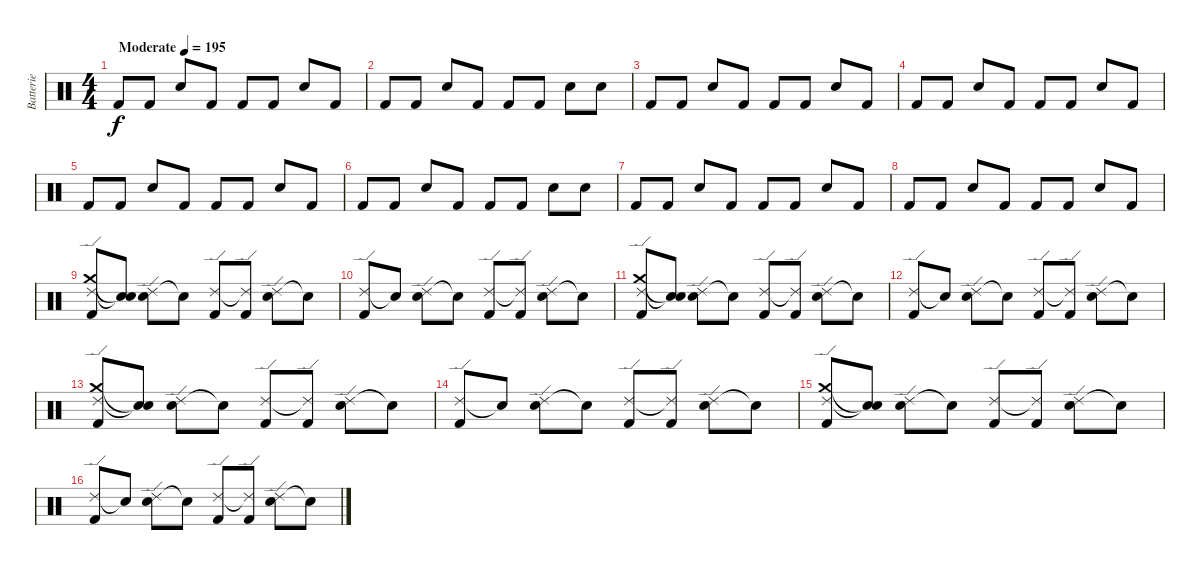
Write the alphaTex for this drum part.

\track ("Batterie" "Batterie") {instrument percussion}
\staff {score}
\articulation defaults
\ts (4 4)
\tempo (195 "Moderate")
\clef neutral
\ks c "Kick (hit) 2".8{dy f} "Kick (hit) 2".8 "Electric Snare (hit)".8 "Kick (hit) 2".8 "Kick (hit) 2".8 "Kick (hit) 2".8 "Electric Snare (hit)".8 "Kick (hit) 2".8
|
"Kick (hit) 2".8 "Kick (hit) 2".8 "Electric Snare (hit)".8 "Kick (hit) 2".8 "Kick (hit) 2".8 "Kick (hit) 2".8 "Electric Snare (hit)".8 "Electric Snare (hit)".8 |
"Kick (hit) 2".8 "Kick (hit) 2".8 "Electric Snare (hit)".8 "Kick (hit) 2".8 "Kick (hit) 2".8 "Kick (hit) 2".8 "Electric Snare (hit)".8 "Kick (hit) 2".8 |
"Kick (hit) 2".8 "Kick (hit) 2".8 "Electric Snare (hit)".8 "Kick (hit) 2".8 "Kick (hit) 2".8 "Kick (hit) 2".8 "Electric Snare (hit)".8 "Kick (hit) 2".8 |
"Kick (hit) 2".8 "Kick (hit) 2".8 "Electric Snare (hit)".8 "Kick (hit) 2".8 "Kick (hit) 2".8 "Kick (hit) 2".8 "Electric Snare (hit)".8 "Kick (hit) 2".8 |
"Kick (hit) 2".8 "Kick (hit) 2".8 "Electric Snare (hit)".8 "Kick (hit) 2".8 "Kick (hit) 2".8 "Kick (hit) 2".8 "Electric Snare (hit)".8 "Electric Snare (hit)".8 |
"Kick (hit) 2".8 "Kick (hit) 2".8 "Electric Snare (hit)".8 "Kick (hit) 2".8 "Kick (hit) 2".8 "Kick (hit) 2".8 "Electric Snare (hit)".8 "Kick (hit) 2".8 |
"Kick (hit) 2".8 "Kick (hit) 2".8 "Electric Snare (hit)".8 "Kick (hit) 2".8 "Kick (hit) 2".8 "Kick (hit) 2".8 "Electric Snare (hit)".8 "Kick (hit) 2".8 |
("Crash medium (hit)" "Ride (edge) 2" "Kick (hit) 2").8 ("Snare (hit)"{t} "Snare (hit)"{t}).8 ("Ride (edge) 2" "Electric Snare (hit)").8 "Snare (hit)"{t}.8 ("Ride (edge) 2" "Kick (hit) 2").8 ("Ride (edge) 2"{t} "Kick (hit) 2").8 ("Ride (edge) 2" "Electric Snare (hit)").8 "Snare (hit)"{t}.8 |
("Ride (edge) 2" "Kick (hit) 2").8 "Snare (hit)"{t}.8 ("Ride (edge) 2" "Electric Snare (hit)").8 "Snare (hit)"{t}.8 ("Ride (edge) 2" "Kick (hit) 2").8 ("Ride (edge) 2"{t} "Kick (hit) 2").8 ("Ride (edge) 2" "Electric Snare (hit)").8 "Snare (hit)"{t}.8 |
("Crash medium (hit)" "Ride (edge) 2" "Kick (hit) 2").8 ("Snare (hit)"{t} "Snare (hit)"{t}).8 ("Ride (edge) 2" "Electric Snare (hit)").8 "Snare (hit)"{t}.8 ("Ride (edge) 2" "Kick (hit) 2").8 ("Ride (edge) 2"{t} "Kick (hit) 2").8 ("Ride (edge) 2" "Electric Snare (hit)").8 "Snare (hit)"{t}.8 |
("Ride (edge) 2" "Kick (hit) 2").8 "Snare (hit)"{t}.8 ("Ride (edge) 2" "Electric Snare (hit)").8 "Snare (hit)"{t}.8 ("Ride (edge) 2" "Kick (hit) 2").8 ("Ride (edge) 2"{t} "Kick (hit) 2").8 ("Ride (edge) 2" "Electric Snare (hit)").8 "Snare (hit)"{t}.8 |
("Crash medium (hit)" "Ride (edge) 2" "Kick (hit) 2").8 ("Snare (hit)"{t} "Snare (hit)"{t}).8 ("Ride (edge) 2" "Electric Snare (hit)").8 "Snare (hit)"{t}.8 ("Ride (edge) 2" "Kick (hit) 2").8 ("Ride (edge) 2"{t} "Kick (hit) 2").8 ("Ride (edge) 2" "Electric Snare (hit)").8 "Snare (hit)"{t}.8 |
("Ride (edge) 2" "Kick (hit) 2").8 "Snare (hit)"{t}.8 ("Ride (edge) 2" "Electric Snare (hit)").8 "Snare (hit)"{t}.8 ("Ride (edge) 2" "Kick (hit) 2").8 ("Ride (edge) 2"{t} "Kick (hit) 2").8 ("Ride (edge) 2" "Electric Snare (hit)").8 "Snare (hit)"{t}.8 |
("Crash medium (hit)" "Ride (edge) 2" "Kick (hit) 2").8 ("Snare (hit)"{t} "Snare (hit)"{t}).8 ("Ride (edge) 2" "Electric Snare (hit)").8 "Snare (hit)"{t}.8 ("Ride (edge) 2" "Kick (hit) 2").8 ("Ride (edge) 2"{t} "Kick (hit) 2").8 ("Ride (edge) 2" "Electric Snare (hit)").8 "Snare (hit)"{t}.8 |
("Ride (edge) 2" "Kick (hit) 2").8 "Snare (hit)"{t}.8 ("Ride (edge) 2" "Electric Snare (hit)").8 "Snare (hit)"{t}.8 ("Ride (edge) 2" "Kick (hit) 2").8 ("Ride (edge) 2"{t} "Kick (hit) 2").8 ("Ride (edge) 2" "Electric Snare (hit)").8 "Snare (hit)"{t}.8
